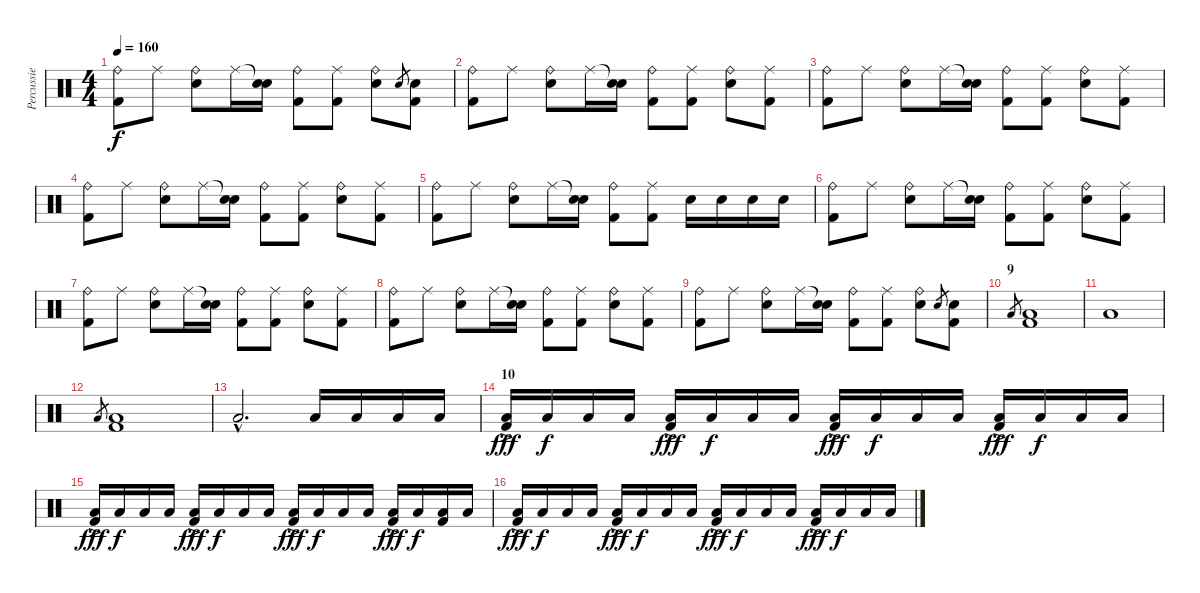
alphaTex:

\track ("Percussie" "Percussie") {instrument percussion}
\staff {score}
\articulation defaults
\ts (4 4)
\tempo 160
\clef neutral
\ks c
("Ride (bell)" "Kick (hit) 2").8{dy f} "Ride (middle)".8 ("Ride (bell)" "Snare (hit) 2").8 "Ride (middle)".16 ("Snare (hit)"{t} "Snare (hit) 2").16 ("Ride (bell)" "Kick (hit) 2").8 ("Ride (middle)" "Kick (hit) 2").8 ("Ride (bell)" "Snare (hit) 2").8 "Snare (hit) 2".8{gr} ("Snare (hit) 2" "Kick (hit) 2").8 |
("Ride (bell)" "Kick (hit) 2").8 "Ride (middle)".8 ("Ride (bell)" "Snare (hit) 2").8 "Ride (middle)".16 ("Snare (hit)"{t} "Snare (hit) 2").16 ("Ride (bell)" "Kick (hit) 2").8 ("Ride (middle)" "Kick (hit) 2").8 ("Ride (bell)" "Snare (hit) 2").8 ("Ride (middle)" "Kick (hit) 2").8 |
("Ride (bell)" "Kick (hit) 2").8 "Ride (middle)".8 ("Ride (bell)" "Snare (hit) 2").8 "Ride (middle)".16 ("Snare (hit)"{t} "Snare (hit) 2").16 ("Ride (bell)" "Kick (hit) 2").8 ("Ride (middle)" "Kick (hit) 2").8 ("Ride (bell)" "Snare (hit) 2").8 ("Ride (middle)" "Kick (hit) 2").8 |
("Ride (bell)" "Kick (hit) 2").8 "Ride (middle)".8 ("Ride (bell)" "Snare (hit) 2").8 "Ride (middle)".16 ("Snare (hit)"{t} "Snare (hit) 2").16 ("Ride (bell)" "Kick (hit) 2").8 ("Ride (middle)" "Kick (hit) 2").8 ("Ride (bell)" "Snare (hit) 2").8 ("Ride (middle)" "Kick (hit) 2").8 |
("Ride (bell)" "Kick (hit) 2").8 "Ride (middle)".8 ("Ride (bell)" "Snare (hit) 2").8 "Ride (middle)".16 ("Snare (hit)"{t} "Snare (hit) 2").16 ("Ride (bell)" "Kick (hit) 2").8 ("Ride (middle)" "Kick (hit) 2").8 "Snare (hit) 2".16 "Snare (hit) 2".16 "Snare (hit) 2".16 "Snare (hit) 2".16 |
("Ride (bell)" "Kick (hit) 2").8 "Ride (middle)".8 ("Ride (bell)" "Snare (hit) 2").8 "Ride (middle)".16 ("Snare (hit)"{t} "Snare (hit) 2").16 ("Ride (bell)" "Kick (hit) 2").8 ("Ride (middle)" "Kick (hit) 2").8 ("Ride (bell)" "Snare (hit) 2").8 ("Ride (middle)" "Kick (hit) 2").8 |
("Ride (bell)" "Kick (hit) 2").8 "Ride (middle)".8 ("Ride (bell)" "Snare (hit) 2").8 "Ride (middle)".16 ("Snare (hit)"{t} "Snare (hit) 2").16 ("Ride (bell)" "Kick (hit) 2").8 ("Ride (middle)" "Kick (hit) 2").8 ("Ride (bell)" "Snare (hit) 2").8 ("Ride (middle)" "Kick (hit) 2").8 |
("Ride (bell)" "Kick (hit) 2").8 "Ride (middle)".8 ("Ride (bell)" "Snare (hit) 2").8 "Ride (middle)".16 ("Snare (hit)"{t} "Snare (hit) 2").16 ("Ride (bell)" "Kick (hit) 2").8 ("Ride (middle)" "Kick (hit) 2").8 ("Ride (bell)" "Snare (hit) 2").8 ("Ride (middle)" "Kick (hit) 2").8 |
("Ride (bell)" "Kick (hit) 2").8 "Ride (middle)".8 ("Ride (bell)" "Snare (hit) 2").8 "Ride (middle)".16 ("Snare (hit)"{t} "Snare (hit) 2").16 ("Ride (bell)" "Kick (hit) 2").8 ("Ride (middle)" "Kick (hit) 2").8 ("Ride (bell)" "Snare (hit) 2").8 "Snare (hit) 2".8{gr} ("Snare (hit) 2" "Kick (hit) 2").8 |
\section ("" "9")
"Low Floor Tom (hit)".8{gr} ("Low Floor Tom (hit)" "Kick (hit) 2").1 |
"Low Floor Tom (hit)".1 |
"Low Floor Tom (hit)".8{gr} ("Low Floor Tom (hit)" "Kick (hit) 2").1 |
"Low Floor Tom (hit)"{hac}.2{d} "Low Floor Tom (hit)".16 "Low Floor Tom (hit)".16 "Low Floor Tom (hit)".16 "Low Floor Tom (hit)".16 |
\section ("" "10")
("Low Floor Tom (hit)"{ac} "Kick (hit) 2").16{dy fff} "Low Floor Tom (hit)".16{dy f} "Low Floor Tom (hit)".16 "Low Floor Tom (hit)".16 ("Low Floor Tom (hit)"{ac} "Kick (hit) 2").16{dy fff} "Low Floor Tom (hit)".16{dy f} "Low Floor Tom (hit)".16 "Low Floor Tom (hit)".16 ("Low Floor Tom (hit)"{ac} "Kick (hit) 2").16{dy fff} "Low Floor Tom (hit)".16{dy f} "Low Floor Tom (hit)".16 "Low Floor Tom (hit)".16 ("Low Floor Tom (hit)"{ac} "Kick (hit) 2").16{dy fff} "Low Floor Tom (hit)".16{dy f} "Low Floor Tom (hit)".16 "Low Floor Tom (hit)".16 |
("Low Floor Tom (hit)"{ac} "Kick (hit) 2").16{dy fff} "Low Floor Tom (hit)".16{dy f} "Low Floor Tom (hit)".16 "Low Floor Tom (hit)".16 ("Low Floor Tom (hit)"{ac} "Kick (hit) 2").16{dy fff} "Low Floor Tom (hit)".16{dy f} "Low Floor Tom (hit)".16 "Low Floor Tom (hit)".16 ("Low Floor Tom (hit)"{ac} "Kick (hit) 2").16{dy fff} "Low Floor Tom (hit)".16{dy f} "Low Floor Tom (hit)".16 "Low Floor Tom (hit)".16 ("Low Floor Tom (hit)"{ac} "Kick (hit) 2").16{dy fff} "Low Floor Tom (hit)".16{dy f} ("Low Floor Tom (hit)" "Kick (hit) 2").16 "Low Floor Tom (hit)".16 |
("Low Floor Tom (hit)"{ac} "Kick (hit) 2").16{dy fff} "Low Floor Tom (hit)".16{dy f} "Low Floor Tom (hit)".16 "Low Floor Tom (hit)".16 ("Low Floor Tom (hit)"{ac} "Kick (hit) 2").16{dy fff} "Low Floor Tom (hit)".16{dy f} "Low Floor Tom (hit)".16 "Low Floor Tom (hit)".16 ("Low Floor Tom (hit)"{ac} "Kick (hit) 2").16{dy fff} "Low Floor Tom (hit)".16{dy f} "Low Floor Tom (hit)".16 "Low Floor Tom (hit)".16 ("Low Floor Tom (hit)"{ac} "Kick (hit) 2").16{dy fff} "Low Floor Tom (hit)".16{dy f} "Low Floor Tom (hit)".16 "Low Floor Tom (hit)".16
